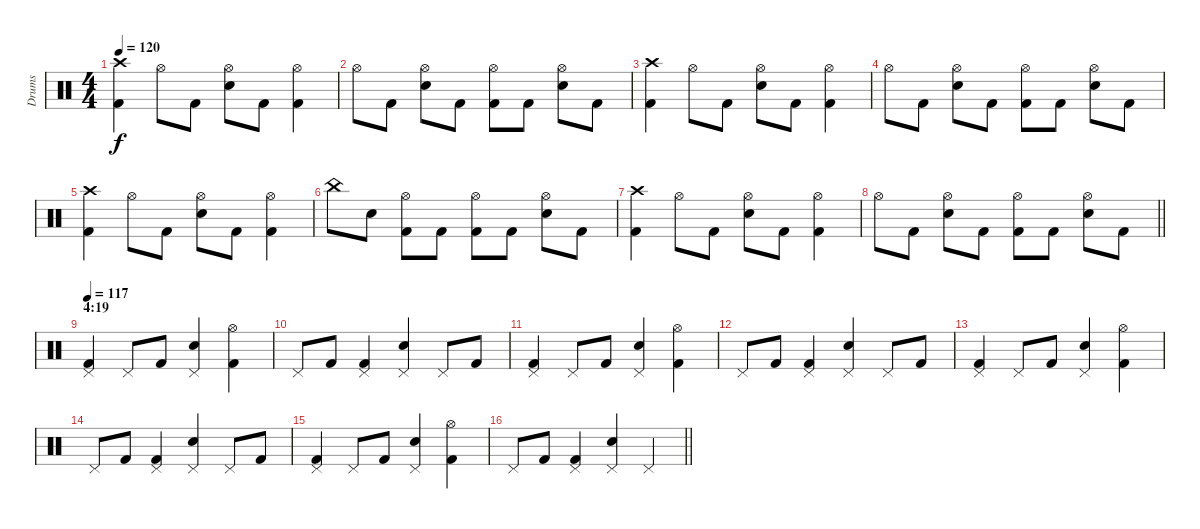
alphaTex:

\track ("Drums" "Drums") {instrument percussion}
\staff {score}
\articulation defaults
\ts (4 4)
\tempo 120
\clef neutral
\ks c
("Crash high (hit)" "Kick (hit) 2").4{dy f} "Hi-Hat (open)".8 "Kick (hit) 2".8 ("Hi-Hat (open)" "Snare (hit) 2").8 "Kick (hit) 2".8 ("Hi-Hat (open)" "Kick (hit) 2").4 |
"Hi-Hat (open)".8 "Kick (hit) 2".8 ("Hi-Hat (open)" "Snare (hit) 2").8 "Kick (hit) 2".8 ("Hi-Hat (open)" "Kick (hit) 2").8 "Kick (hit) 2".8 ("Hi-Hat (open)" "Snare (hit) 2").8 "Kick (hit) 2".8 |
("Crash high (hit)" "Kick (hit) 2").4 "Hi-Hat (open)".8 "Kick (hit) 2".8 ("Hi-Hat (open)" "Snare (hit) 2").8 "Kick (hit) 2".8 ("Hi-Hat (open)" "Kick (hit) 2").4 |
"Hi-Hat (open)".8 "Kick (hit) 2".8 ("Hi-Hat (open)" "Snare (hit) 2").8 "Kick (hit) 2".8 ("Hi-Hat (open)" "Kick (hit) 2").8 "Kick (hit) 2".8 ("Hi-Hat (open)" "Snare (hit) 2").8 "Kick (hit) 2".8 |
("Crash high (hit)" "Kick (hit) 2").4 "Hi-Hat (open)".8 "Kick (hit) 2".8 ("Hi-Hat (open)" "Snare (hit) 2").8 "Kick (hit) 2".8 ("Hi-Hat (open)" "Kick (hit) 2").4 |
"China (hit)".8 "Snare (hit) 2".8 ("Hi-Hat (open)" "Kick (hit) 2").8 "Kick (hit) 2".8 ("Hi-Hat (open)" "Kick (hit) 2").8 "Kick (hit) 2".8 ("Hi-Hat (open)" "Snare (hit) 2").8 "Kick (hit) 2".8 |
("Crash high (hit)" "Kick (hit) 2").4 "Hi-Hat (open)".8 "Kick (hit) 2".8 ("Hi-Hat (open)" "Snare (hit) 2").8 "Kick (hit) 2".8 ("Hi-Hat (open)" "Kick (hit) 2").4 |
\barLineRight lightlight "Hi-Hat (open)".8 "Kick (hit) 2".8
("Hi-Hat (open)" "Snare (hit) 2").8 "Kick (hit) 2".8 ("Hi-Hat (open)" "Kick (hit) 2").8 "Kick (hit) 2".8 ("Hi-Hat (open)" "Snare (hit) 2").8 "Kick (hit) 2".8 |
\section ("" "4:19")
\tempo 117
("Pedal Hi-Hat (hit)" "Kick (hit) 2").4 "Pedal Hi-Hat (hit)".8 "Kick (hit) 2".8 ("Pedal Hi-Hat (hit)" "Snare (hit) 2").4 ("Hi-Hat (open)" "Kick (hit) 2").4 |
"Pedal Hi-Hat (hit)".8 "Kick (hit) 2".8 ("Pedal Hi-Hat (hit)" "Kick (hit) 2").4 ("Pedal Hi-Hat (hit)" "Snare (hit) 2").4 "Pedal Hi-Hat (hit)".8 "Kick (hit) 2".8 |
("Pedal Hi-Hat (hit)" "Kick (hit) 2").4 "Pedal Hi-Hat (hit)".8 "Kick (hit) 2".8 ("Pedal Hi-Hat (hit)" "Snare (hit) 2").4 ("Hi-Hat (open)" "Kick (hit) 2").4 |
"Pedal Hi-Hat (hit)".8 "Kick (hit) 2".8 ("Pedal Hi-Hat (hit)" "Kick (hit) 2").4 ("Pedal Hi-Hat (hit)" "Snare (hit) 2").4 "Pedal Hi-Hat (hit)".8 "Kick (hit) 2".8 |
("Pedal Hi-Hat (hit)" "Kick (hit) 2").4 "Pedal Hi-Hat (hit)".8 "Kick (hit) 2".8 ("Pedal Hi-Hat (hit)" "Snare (hit) 2").4 ("Hi-Hat (open)" "Kick (hit) 2").4 |
"Pedal Hi-Hat (hit)".8 "Kick (hit) 2".8 ("Pedal Hi-Hat (hit)" "Kick (hit) 2").4 ("Pedal Hi-Hat (hit)" "Snare (hit) 2").4 "Pedal Hi-Hat (hit)".8 "Kick (hit) 2".8 |
("Pedal Hi-Hat (hit)" "Kick (hit) 2").4 "Pedal Hi-Hat (hit)".8 "Kick (hit) 2".8 ("Pedal Hi-Hat (hit)" "Snare (hit) 2").4 ("Hi-Hat (open)" "Kick (hit) 2").4 |
\barLineRight lightlight "Pedal Hi-Hat (hit)".8 "Kick (hit) 2".8
("Pedal Hi-Hat (hit)" "Kick (hit) 2").4 ("Pedal Hi-Hat (hit)" "Snare (hit) 2").4 "Pedal Hi-Hat (hit)".4
